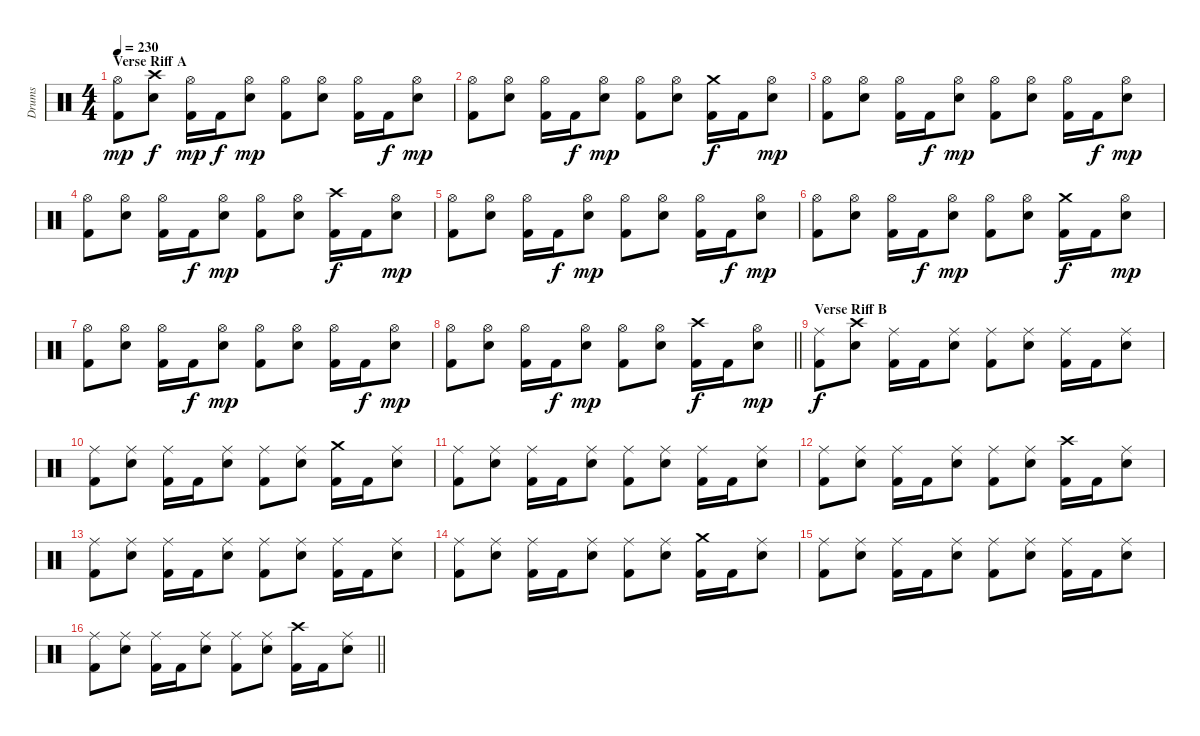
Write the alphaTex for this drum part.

\track ("Drums" "Drums") {instrument percussion}
\staff {score}
\articulation defaults
\ts (4 4)
\section ("" "Verse Riff A")
\tempo 230
\clef neutral
\ks c
("Hi-Hat (open)" "Kick (hit) 2").8{dy mp} ("Crash high (hit)" "Snare (hit) 2").8{dy f} ("Hi-Hat (open)" "Kick (hit) 2").16{dy mp} "Kick (hit) 2".16{dy f} ("Hi-Hat (open)" "Snare (hit) 2").8{dy mp} ("Hi-Hat (open)" "Kick (hit) 2").8 ("Hi-Hat (open)" "Snare (hit) 2").8 ("Hi-Hat (open)" "Kick (hit) 2").16 "Kick (hit) 2".16{dy f} ("Hi-Hat (open)" "Snare (hit) 2").8{dy mp} |
("Hi-Hat (open)" "Kick (hit) 2").8 ("Hi-Hat (open)" "Snare (hit) 2").8 ("Hi-Hat (open)" "Kick (hit) 2").16 "Kick (hit) 2".16{dy f} ("Hi-Hat (open)" "Snare (hit) 2").8{dy mp} ("Hi-Hat (open)" "Kick (hit) 2").8 ("Hi-Hat (open)" "Snare (hit) 2").8 ("Crash medium (hit)" "Kick (hit) 2").16{dy f} "Kick (hit) 2".16 ("Hi-Hat (open)" "Snare (hit) 2").8{dy mp} |
("Hi-Hat (open)" "Kick (hit) 2").8 ("Hi-Hat (open)" "Snare (hit) 2").8 ("Hi-Hat (open)" "Kick (hit) 2").16 "Kick (hit) 2".16{dy f} ("Hi-Hat (open)" "Snare (hit) 2").8{dy mp} ("Hi-Hat (open)" "Kick (hit) 2").8 ("Hi-Hat (open)" "Snare (hit) 2").8 ("Hi-Hat (open)" "Kick (hit) 2").16 "Kick (hit) 2".16{dy f} ("Hi-Hat (open)" "Snare (hit) 2").8{dy mp} |
("Hi-Hat (open)" "Kick (hit) 2").8 ("Hi-Hat (open)" "Snare (hit) 2").8 ("Hi-Hat (open)" "Kick (hit) 2").16 "Kick (hit) 2".16{dy f} ("Hi-Hat (open)" "Snare (hit) 2").8{dy mp} ("Hi-Hat (open)" "Kick (hit) 2").8 ("Hi-Hat (open)" "Snare (hit) 2").8 ("Crash high (hit)" "Kick (hit) 2").16{dy f} "Kick (hit) 2".16 ("Hi-Hat (open)" "Snare (hit) 2").8{dy mp} |
("Hi-Hat (open)" "Kick (hit) 2").8 ("Hi-Hat (open)" "Snare (hit) 2").8 ("Hi-Hat (open)" "Kick (hit) 2").16 "Kick (hit) 2".16{dy f} ("Hi-Hat (open)" "Snare (hit) 2").8{dy mp} ("Hi-Hat (open)" "Kick (hit) 2").8 ("Hi-Hat (open)" "Snare (hit) 2").8 ("Hi-Hat (open)" "Kick (hit) 2").16 "Kick (hit) 2".16{dy f} ("Hi-Hat (open)" "Snare (hit) 2").8{dy mp} |
("Hi-Hat (open)" "Kick (hit) 2").8 ("Hi-Hat (open)" "Snare (hit) 2").8 ("Hi-Hat (open)" "Kick (hit) 2").16 "Kick (hit) 2".16{dy f} ("Hi-Hat (open)" "Snare (hit) 2").8{dy mp} ("Hi-Hat (open)" "Kick (hit) 2").8 ("Hi-Hat (open)" "Snare (hit) 2").8 ("Crash medium (hit)" "Kick (hit) 2").16{dy f} "Kick (hit) 2".16 ("Hi-Hat (open)" "Snare (hit) 2").8{dy mp} |
("Hi-Hat (open)" "Kick (hit) 2").8 ("Hi-Hat (open)" "Snare (hit) 2").8 ("Hi-Hat (open)" "Kick (hit) 2").16 "Kick (hit) 2".16{dy f} ("Hi-Hat (open)" "Snare (hit) 2").8{dy mp} ("Hi-Hat (open)" "Kick (hit) 2").8 ("Hi-Hat (open)" "Snare (hit) 2").8 ("Hi-Hat (open)" "Kick (hit) 2").16 "Kick (hit) 2".16{dy f} ("Hi-Hat (open)" "Snare (hit) 2").8{dy mp} |
\barLineRight lightlight
("Hi-Hat (open)" "Kick (hit) 2").8 ("Hi-Hat (open)" "Snare (hit) 2").8 ("Hi-Hat (open)" "Kick (hit) 2").16 "Kick (hit) 2".16{dy f} ("Hi-Hat (open)" "Snare (hit) 2").8{dy mp} ("Hi-Hat (open)" "Kick (hit) 2").8 ("Hi-Hat (open)" "Snare (hit) 2").8 ("Crash high (hit)" "Kick (hit) 2").16{dy f} "Kick (hit) 2".16 ("Hi-Hat (open)" "Snare (hit) 2").8{dy mp} |
\section ("" "Verse Riff B")
("Ride (middle)" "Kick (hit) 2").8{dy f} ("Crash high (hit)" "Snare (hit) 2").8 ("Ride (middle)" "Kick (hit) 2").16 "Kick (hit) 2".16 ("Ride (middle)" "Snare (hit) 2").8 ("Ride (middle)" "Kick (hit) 2").8 ("Ride (middle)" "Snare (hit) 2").8 ("Ride (middle)" "Kick (hit) 2").16 "Kick (hit) 2".16 ("Ride (middle)" "Snare (hit) 2").8 |
("Ride (middle)" "Kick (hit) 2").8 ("Ride (middle)" "Snare (hit) 2").8 ("Ride (middle)" "Kick (hit) 2").16 "Kick (hit) 2".16 ("Ride (middle)" "Snare (hit) 2").8 ("Ride (middle)" "Kick (hit) 2").8 ("Ride (middle)" "Snare (hit) 2").8 ("Crash medium (hit)" "Kick (hit) 2").16 "Kick (hit) 2".16 ("Ride (middle)" "Snare (hit) 2").8 |
("Ride (middle)" "Kick (hit) 2").8 ("Ride (middle)" "Snare (hit) 2").8 ("Ride (middle)" "Kick (hit) 2").16 "Kick (hit) 2".16 ("Ride (middle)" "Snare (hit) 2").8 ("Ride (middle)" "Kick (hit) 2").8 ("Ride (middle)" "Snare (hit) 2").8 ("Ride (middle)" "Kick (hit) 2").16 "Kick (hit) 2".16 ("Ride (middle)" "Snare (hit) 2").8 |
("Ride (middle)" "Kick (hit) 2").8 ("Ride (middle)" "Snare (hit) 2").8 ("Ride (middle)" "Kick (hit) 2").16 "Kick (hit) 2".16 ("Ride (middle)" "Snare (hit) 2").8 ("Ride (middle)" "Kick (hit) 2").8 ("Ride (middle)" "Snare (hit) 2").8 ("Crash high (hit)" "Kick (hit) 2").16 "Kick (hit) 2".16 ("Ride (middle)" "Snare (hit) 2").8 |
("Ride (middle)" "Kick (hit) 2").8 ("Ride (middle)" "Snare (hit) 2").8 ("Ride (middle)" "Kick (hit) 2").16 "Kick (hit) 2".16 ("Ride (middle)" "Snare (hit) 2").8 ("Ride (middle)" "Kick (hit) 2").8 ("Ride (middle)" "Snare (hit) 2").8 ("Ride (middle)" "Kick (hit) 2").16 "Kick (hit) 2".16 ("Ride (middle)" "Snare (hit) 2").8 |
("Ride (middle)" "Kick (hit) 2").8 ("Ride (middle)" "Snare (hit) 2").8 ("Ride (middle)" "Kick (hit) 2").16 "Kick (hit) 2".16 ("Ride (middle)" "Snare (hit) 2").8 ("Ride (middle)" "Kick (hit) 2").8 ("Ride (middle)" "Snare (hit) 2").8 ("Crash medium (hit)" "Kick (hit) 2").16 "Kick (hit) 2".16 ("Ride (middle)" "Snare (hit) 2").8 |
("Ride (middle)" "Kick (hit) 2").8 ("Ride (middle)" "Snare (hit) 2").8 ("Ride (middle)" "Kick (hit) 2").16 "Kick (hit) 2".16 ("Ride (middle)" "Snare (hit) 2").8 ("Ride (middle)" "Kick (hit) 2").8 ("Ride (middle)" "Snare (hit) 2").8 ("Ride (middle)" "Kick (hit) 2").16 "Kick (hit) 2".16 ("Ride (middle)" "Snare (hit) 2").8 |
\barLineRight lightlight
("Ride (middle)" "Kick (hit) 2").8 ("Ride (middle)" "Snare (hit) 2").8 ("Ride (middle)" "Kick (hit) 2").16 "Kick (hit) 2".16 ("Ride (middle)" "Snare (hit) 2").8 ("Ride (middle)" "Kick (hit) 2").8 ("Ride (middle)" "Snare (hit) 2").8 ("Crash high (hit)" "Kick (hit) 2").16 "Kick (hit) 2".16 ("Ride (middle)" "Snare (hit) 2").8
